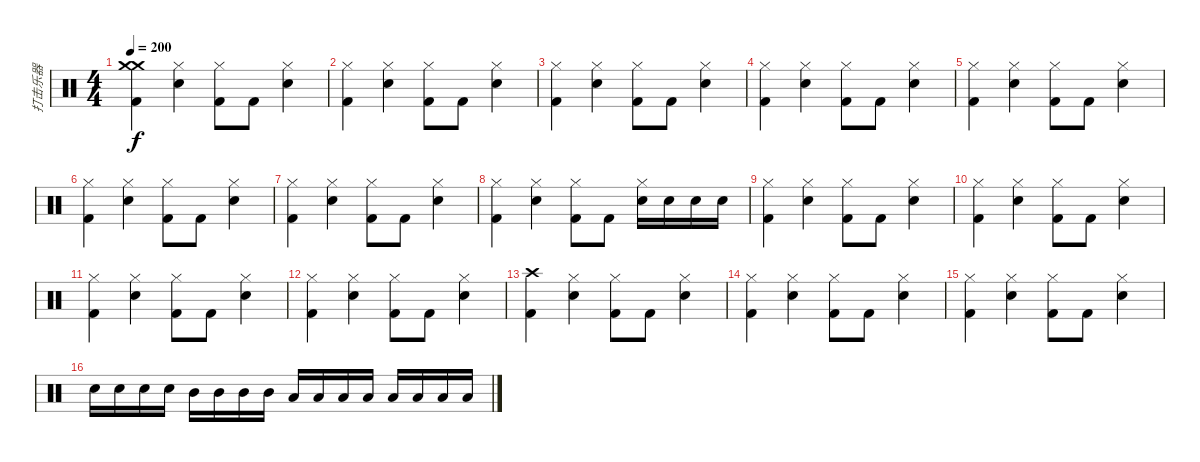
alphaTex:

\track ("打击乐器" "打击乐器") {instrument percussion}
\staff {score}
\articulation defaults
\ts (4 4)
\tempo 200
\clef neutral
\ks c
("Crash medium (hit)" "Crash medium (hit)" "Kick (hit) 2").4{dy f} ("Hi-Hat (closed)" "Snare (hit) 2").4 ("Hi-Hat (closed)" "Kick (hit) 2").8 "Kick (hit) 2".8 ("Hi-Hat (closed)" "Snare (hit) 2").4 |
("Hi-Hat (closed)" "Kick (hit) 2").4 ("Hi-Hat (closed)" "Snare (hit) 2").4 ("Hi-Hat (closed)" "Kick (hit) 2").8 "Kick (hit) 2".8 ("Hi-Hat (closed)" "Snare (hit) 2").4 |
("Hi-Hat (closed)" "Kick (hit) 2").4 ("Hi-Hat (closed)" "Snare (hit) 2").4 ("Hi-Hat (closed)" "Kick (hit) 2").8 "Kick (hit) 2".8 ("Hi-Hat (closed)" "Snare (hit) 2").4 |
("Hi-Hat (closed)" "Kick (hit) 2").4 ("Hi-Hat (closed)" "Snare (hit) 2").4 ("Hi-Hat (closed)" "Kick (hit) 2").8 "Kick (hit) 2".8 ("Hi-Hat (closed)" "Snare (hit) 2").4 |
("Hi-Hat (closed)" "Kick (hit) 2").4 ("Hi-Hat (closed)" "Snare (hit) 2").4 ("Hi-Hat (closed)" "Kick (hit) 2").8 "Kick (hit) 2".8 ("Hi-Hat (closed)" "Snare (hit) 2").4 |
("Hi-Hat (closed)" "Kick (hit) 2").4 ("Hi-Hat (closed)" "Snare (hit) 2").4 ("Hi-Hat (closed)" "Kick (hit) 2").8 "Kick (hit) 2".8 ("Hi-Hat (closed)" "Snare (hit) 2").4 |
("Hi-Hat (closed)" "Kick (hit) 2").4 ("Hi-Hat (closed)" "Snare (hit) 2").4 ("Hi-Hat (closed)" "Kick (hit) 2").8 "Kick (hit) 2".8 ("Hi-Hat (closed)" "Snare (hit) 2").4 |
("Hi-Hat (closed)" "Kick (hit) 2").4 ("Hi-Hat (closed)" "Snare (hit) 2").4 ("Hi-Hat (closed)" "Kick (hit) 2").8 "Kick (hit) 2".8 ("Hi-Hat (closed)" "Snare (hit) 2").16 "Snare (hit) 2".16 "Snare (hit) 2".16 "Snare (hit) 2".16 |
("Hi-Hat (closed)" "Kick (hit) 2").4 ("Hi-Hat (closed)" "Snare (hit) 2").4 ("Hi-Hat (closed)" "Kick (hit) 2").8 "Kick (hit) 2".8 ("Hi-Hat (closed)" "Snare (hit) 2").4 |
("Hi-Hat (closed)" "Kick (hit) 2").4 ("Hi-Hat (closed)" "Snare (hit) 2").4 ("Hi-Hat (closed)" "Kick (hit) 2").8 "Kick (hit) 2".8 ("Hi-Hat (closed)" "Snare (hit) 2").4 |
("Hi-Hat (closed)" "Kick (hit) 2").4 ("Hi-Hat (closed)" "Snare (hit) 2").4 ("Hi-Hat (closed)" "Kick (hit) 2").8 "Kick (hit) 2".8 ("Hi-Hat (closed)" "Snare (hit) 2").4 |
("Hi-Hat (closed)" "Kick (hit) 2").4 ("Hi-Hat (closed)" "Snare (hit) 2").4 ("Hi-Hat (closed)" "Kick (hit) 2").8 "Kick (hit) 2".8 ("Hi-Hat (closed)" "Snare (hit) 2").4 |
("Crash high (hit)" "Kick (hit) 2").4 ("Hi-Hat (closed)" "Snare (hit) 2").4 ("Hi-Hat (closed)" "Kick (hit) 2").8 "Kick (hit) 2".8 ("Hi-Hat (closed)" "Snare (hit) 2").4 |
("Hi-Hat (closed)" "Kick (hit) 2").4 ("Hi-Hat (closed)" "Snare (hit) 2").4 ("Hi-Hat (closed)" "Kick (hit) 2").8 "Kick (hit) 2".8 ("Hi-Hat (closed)" "Snare (hit) 2").4 |
("Hi-Hat (closed)" "Kick (hit) 2").4 ("Hi-Hat (closed)" "Snare (hit) 2").4 ("Hi-Hat (closed)" "Kick (hit) 2").8 "Kick (hit) 2".8 ("Hi-Hat (closed)" "Snare (hit) 2").4 |
"Snare (hit) 2".16 "Snare (hit) 2".16 "Snare (hit) 2".16 "Snare (hit) 2".16 "Mid Tom (hit)".16 "Mid Tom (hit)".16 "Mid Tom (hit)".16 "Mid Tom (hit)".16 "Low Tom (hit)".16 "Low Tom (hit)".16 "Low Tom (hit)".16 "Low Tom (hit)".16 "Low Floor Tom (hit)".16 "Low Floor Tom (hit)".16 "Low Floor Tom (hit)".16 "Low Floor Tom (hit)".16
